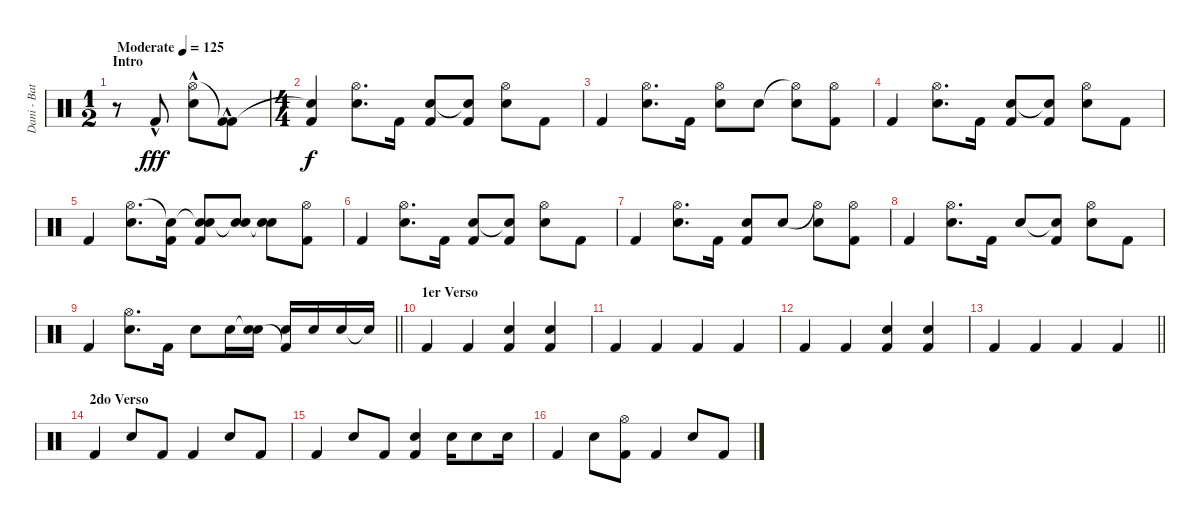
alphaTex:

\track ("Dani - Batería" "Dani - Bat") {instrument percussion}
\staff {score}
\articulation defaults
\ts (1 2)
\section ("" "Intro")
\tempo (125 "Moderate")
\clef neutral
\ks c
r.8{dy fff} "Kick (hit) 2"{hac}.8 ("Hi-Hat (open)"{hac} "Electric Snare (hit)"{hac}).8 ("Kick (hit) 2"{t} "Kick (hit) 2"{hac}).8 |
\ts (4 4)
("Snare (hit)"{t} "Kick (hit) 2").4{dy f} ("Hi-Hat (open)" "Electric Snare (hit)").8{d} "Kick (hit) 2".16 ("Electric Snare (hit)" "Kick (hit) 2").8 ("Snare (hit)"{t} "Kick (hit) 2").8 ("Hi-Hat (open)" "Electric Snare (hit)").8 "Kick (hit) 2".8 |
"Kick (hit) 2".4 ("Hi-Hat (open)" "Electric Snare (hit)").8{d} "Kick (hit) 2".16 ("Hi-Hat (open)" "Electric Snare (hit)").8 "Electric Snare (hit)".8 ("Hi-Hat (open)"{t} "Electric Snare (hit)").8 ("Hi-Hat (open)" "Kick (hit) 2").8 |
"Kick (hit) 2".4 ("Hi-Hat (open)" "Electric Snare (hit)").8{d} "Kick (hit) 2".16 ("Electric Snare (hit)" "Kick (hit) 2").8 ("Snare (hit)"{t} "Kick (hit) 2").8 ("Hi-Hat (open)" "Electric Snare (hit)").8 "Kick (hit) 2".8 |
"Kick (hit) 2".4 ("Hi-Hat (open)" "Electric Snare (hit)").8{d} ("Snare (hit)"{t} "Kick (hit) 2").16 ("Snare (hit)"{t} "Electric Snare (hit)" "Kick (hit) 2").8 ("Snare (hit)"{t} "Electric Snare (hit)").8 ("Snare (hit)"{t} "Electric Snare (hit)").8 ("Hi-Hat (open)" "Kick (hit) 2").8 |
"Kick (hit) 2".4 ("Hi-Hat (open)" "Electric Snare (hit)").8{d} "Kick (hit) 2".16 ("Electric Snare (hit)" "Kick (hit) 2").8 ("Snare (hit)"{t} "Kick (hit) 2").8 ("Hi-Hat (open)" "Electric Snare (hit)").8 "Kick (hit) 2".8 |
"Kick (hit) 2".4 ("Hi-Hat (open)" "Electric Snare (hit)").8{d} "Kick (hit) 2".16 ("Electric Snare (hit)" "Kick (hit) 2").8 "Electric Snare (hit)".8 ("Hi-Hat (open)"{t} "Electric Snare (hit)").8 ("Hi-Hat (open)" "Kick (hit) 2").8 |
"Kick (hit) 2".4 ("Hi-Hat (open)" "Electric Snare (hit)").8{d} "Kick (hit) 2".16 "Electric Snare (hit)".8 ("Snare (hit)"{t} "Kick (hit) 2").8 ("Hi-Hat (open)" "Electric Snare (hit)").8 "Kick (hit) 2".8 |
\barLineRight lightlight "Kick (hit) 2".4
("Hi-Hat (open)" "Electric Snare (hit)").8{d} "Kick (hit) 2".16 "Electric Snare (hit)".8 "Electric Snare (hit)".16 ("Snare (hit)"{t} "Electric Snare (hit)").16 ("Electric Snare (hit)" "Kick (hit) 2"{t}).16 "Electric Snare (hit)".16 "Electric Snare (hit)".16 "Snare (hit)"{t}.16 |
\section ("" "1er Verso ")
"Kick (hit) 2".4 "Kick (hit) 2".4 ("Kick (hit) 2" "Snare (hit) 2").4 ("Kick (hit) 2" "Snare (hit) 2").4 |
"Kick (hit) 2".4 "Kick (hit) 2".4 "Kick (hit) 2".4 "Kick (hit) 2".4 |
"Kick (hit) 2".4 "Kick (hit) 2".4 ("Kick (hit) 2" "Snare (hit) 2").4 ("Kick (hit) 2" "Snare (hit) 2").4 |
\barLineRight lightlight "Kick (hit) 2".4 "Kick (hit) 2".4 "Kick (hit) 2".4 "Kick (hit) 2".4
|
\section ("" "2do Verso")
"Kick (hit) 2".4 "Electric Snare (hit)".8 "Kick (hit) 2".8 "Kick (hit) 2".4 "Electric Snare (hit)".8 "Kick (hit) 2".8 |
"Kick (hit) 2".4 "Electric Snare (hit)".8 "Kick (hit) 2".8 ("Electric Snare (hit)" "Kick (hit) 2").4 "Electric Snare (hit)".16 "Electric Snare (hit)".8 "Electric Snare (hit)".16 |
"Kick (hit) 2".4 "Electric Snare (hit)".8 ("Hi-Hat (open)" "Kick (hit) 2").8 "Kick (hit) 2".4 "Electric Snare (hit)".8 "Kick (hit) 2".8
